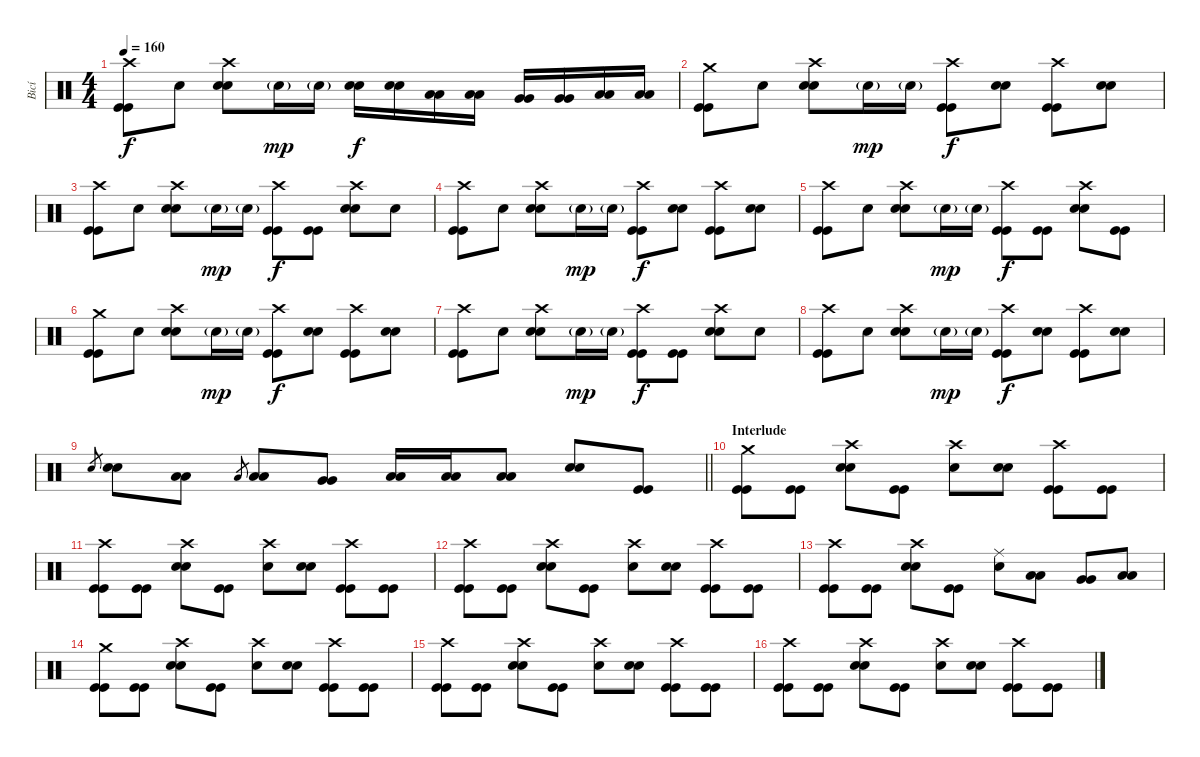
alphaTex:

\track ("Bicí" "Bicí") {instrument percussion}
\staff {score}
\articulation defaults
\ts (4 4)
\tempo 160
\clef neutral
\ks c
("Crash high (hit)" "Kick (hit)" "Kick (hit)").8{dy f} "Snare (hit)".8 ("Crash high (hit)" "Electric Snare (hit)" "Electric Snare (hit)").8 "Electric Snare (hit)"{g}.16{dy mp} "Electric Snare (hit)"{g}.16 ("Electric Snare (hit)" "Electric Snare (hit)").16{dy f} ("Electric Snare (hit)" "Electric Snare (hit)").16 ("Low Tom (hit)" "Low Tom (hit)").16 ("Low Tom (hit)" "Low Tom (hit)").16 ("Very Low Tom (hit)" "Very Low Tom (hit)").16 ("Very Low Tom (hit)" "Very Low Tom (hit)").16 ("Low Floor Tom (hit)" "Low Floor Tom (hit)").16 ("Low Floor Tom (hit)" "Low Floor Tom (hit)").16 |
("Crash medium (hit)" "Kick (hit)" "Kick (hit)").8 "Snare (hit)".8 ("Crash high (hit)" "Electric Snare (hit)" "Electric Snare (hit)").8 "Electric Snare (hit)"{g}.16{dy mp} "Electric Snare (hit)"{g}.16 ("Crash high (hit)" "Kick (hit)" "Kick (hit)").8{dy f} ("Electric Snare (hit)" "Electric Snare (hit)").8 ("Crash high (hit)" "Kick (hit)" "Kick (hit)").8 ("Electric Snare (hit)" "Electric Snare (hit)").8 |
("Crash high (hit)" "Kick (hit)" "Kick (hit)").8 "Snare (hit)".8 ("Crash high (hit)" "Electric Snare (hit)" "Electric Snare (hit)").8 "Electric Snare (hit)"{g}.16{dy mp} "Electric Snare (hit)"{g}.16 ("Crash high (hit)" "Kick (hit)" "Kick (hit)").8{dy f} ("Kick (hit)" "Kick (hit)").8 ("Crash high (hit)" "Electric Snare (hit)" "Electric Snare (hit)").8 "Snare (hit)".8 |
("Crash high (hit)" "Kick (hit)" "Kick (hit)").8 "Snare (hit)".8 ("Crash high (hit)" "Electric Snare (hit)" "Electric Snare (hit)").8 "Electric Snare (hit)"{g}.16{dy mp} "Electric Snare (hit)"{g}.16 ("Crash high (hit)" "Kick (hit)" "Kick (hit)").8{dy f} ("Electric Snare (hit)" "Electric Snare (hit)").8 ("Crash high (hit)" "Kick (hit)" "Kick (hit)").8 ("Electric Snare (hit)" "Electric Snare (hit)").8 |
("Crash high (hit)" "Kick (hit)" "Kick (hit)").8 "Snare (hit)".8 ("Crash high (hit)" "Electric Snare (hit)" "Electric Snare (hit)").8 "Electric Snare (hit)"{g}.16{dy mp} "Electric Snare (hit)"{g}.16 ("Crash high (hit)" "Kick (hit)" "Kick (hit)").8{dy f} ("Kick (hit)" "Kick (hit)").8 ("Crash high (hit)" "Electric Snare (hit)" "Electric Snare (hit)").8 ("Kick (hit)" "Kick (hit)").8 |
("Crash medium (hit)" "Kick (hit)" "Kick (hit)").8 "Snare (hit)".8 ("Crash high (hit)" "Electric Snare (hit)" "Electric Snare (hit)").8 "Electric Snare (hit)"{g}.16{dy mp} "Electric Snare (hit)"{g}.16 ("Crash high (hit)" "Kick (hit)" "Kick (hit)").8{dy f} ("Electric Snare (hit)" "Electric Snare (hit)").8 ("Crash high (hit)" "Kick (hit)" "Kick (hit)").8 ("Electric Snare (hit)" "Electric Snare (hit)").8 |
("Crash high (hit)" "Kick (hit)" "Kick (hit)").8 "Snare (hit)".8 ("Crash high (hit)" "Electric Snare (hit)" "Electric Snare (hit)").8 "Electric Snare (hit)"{g}.16{dy mp} "Electric Snare (hit)"{g}.16 ("Crash high (hit)" "Kick (hit)" "Kick (hit)").8{dy f} ("Kick (hit)" "Kick (hit)").8 ("Crash high (hit)" "Electric Snare (hit)" "Electric Snare (hit)").8 "Snare (hit)".8 |
("Crash high (hit)" "Kick (hit)" "Kick (hit)").8 "Snare (hit)".8 ("Crash high (hit)" "Electric Snare (hit)" "Electric Snare (hit)").8 "Electric Snare (hit)"{g}.16{dy mp} "Electric Snare (hit)"{g}.16 ("Crash high (hit)" "Kick (hit)" "Kick (hit)").8{dy f} ("Electric Snare (hit)" "Electric Snare (hit)").8 ("Crash high (hit)" "Kick (hit)" "Kick (hit)").8 ("Electric Snare (hit)" "Electric Snare (hit)").8 |
\barLineRight lightlight "Electric Snare (hit)".8{gr}
("Electric Snare (hit)" "Electric Snare (hit)").8 ("Low Tom (hit)" "Low Tom (hit)").8 "Low Tom (hit)".8{gr} ("Low Tom (hit)" "Low Tom (hit)").8 ("Very Low Tom (hit)" "Very Low Tom (hit)").8 ("Low Tom (hit)" "Low Tom (hit)").16 ("Low Tom (hit)" "Low Tom (hit)").16 ("Low Tom (hit)" "Low Tom (hit)").8 ("Electric Snare (hit)" "Electric Snare (hit)").8 ("Kick (hit)" "Kick (hit)").8 |
\section ("" "Interlude")
("Crash medium (hit)" "Kick (hit)" "Kick (hit)").8 ("Kick (hit)" "Kick (hit)").8 ("Crash high (hit)" "Electric Snare (hit)" "Electric Snare (hit)").8 ("Kick (hit)" "Kick (hit)").8 ("Crash high (hit)" "Snare (hit)").8 ("Electric Snare (hit)" "Electric Snare (hit)").8 ("Crash high (hit)" "Kick (hit)" "Kick (hit)").8 ("Kick (hit)" "Kick (hit)").8 |
("Crash high (hit)" "Kick (hit)" "Kick (hit)").8 ("Kick (hit)" "Kick (hit)").8 ("Crash high (hit)" "Electric Snare (hit)" "Electric Snare (hit)").8 ("Kick (hit)" "Kick (hit)").8 ("Crash high (hit)" "Snare (hit)").8 ("Electric Snare (hit)" "Electric Snare (hit)").8 ("Crash high (hit)" "Kick (hit)" "Kick (hit)").8 ("Kick (hit)" "Kick (hit)").8 |
("Crash high (hit)" "Kick (hit)" "Kick (hit)").8 ("Kick (hit)" "Kick (hit)").8 ("Crash high (hit)" "Electric Snare (hit)" "Electric Snare (hit)").8 ("Kick (hit)" "Kick (hit)").8 ("Crash high (hit)" "Snare (hit)").8 ("Electric Snare (hit)" "Electric Snare (hit)").8 ("Crash high (hit)" "Kick (hit)" "Kick (hit)").8 ("Kick (hit)" "Kick (hit)").8 |
("Crash high (hit)" "Kick (hit)" "Kick (hit)").8 ("Kick (hit)" "Kick (hit)").8 ("Crash high (hit)" "Electric Snare (hit)" "Electric Snare (hit)").8 ("Kick (hit)" "Kick (hit)").8 ("Ride (middle)" "Snare (hit)").8 ("Low Tom (hit)" "Low Tom (hit)").8 ("Very Low Tom (hit)" "Very Low Tom (hit)").8 ("Low Floor Tom (hit)" "Low Floor Tom (hit)").8 |
("Crash medium (hit)" "Kick (hit)" "Kick (hit)").8 ("Kick (hit)" "Kick (hit)").8 ("Crash high (hit)" "Electric Snare (hit)" "Electric Snare (hit)").8 ("Kick (hit)" "Kick (hit)").8 ("Crash high (hit)" "Snare (hit)").8 ("Electric Snare (hit)" "Electric Snare (hit)").8 ("Crash high (hit)" "Kick (hit)" "Kick (hit)").8 ("Kick (hit)" "Kick (hit)").8 |
("Crash high (hit)" "Kick (hit)" "Kick (hit)").8 ("Kick (hit)" "Kick (hit)").8 ("Crash high (hit)" "Electric Snare (hit)" "Electric Snare (hit)").8 ("Kick (hit)" "Kick (hit)").8 ("Crash high (hit)" "Snare (hit)").8 ("Electric Snare (hit)" "Electric Snare (hit)").8 ("Crash high (hit)" "Kick (hit)" "Kick (hit)").8 ("Kick (hit)" "Kick (hit)").8 |
("Crash high (hit)" "Kick (hit)" "Kick (hit)").8 ("Kick (hit)" "Kick (hit)").8 ("Crash high (hit)" "Electric Snare (hit)" "Electric Snare (hit)").8 ("Kick (hit)" "Kick (hit)").8 ("Crash high (hit)" "Snare (hit)").8 ("Electric Snare (hit)" "Electric Snare (hit)").8 ("Crash high (hit)" "Kick (hit)" "Kick (hit)").8 ("Kick (hit)" "Kick (hit)").8
